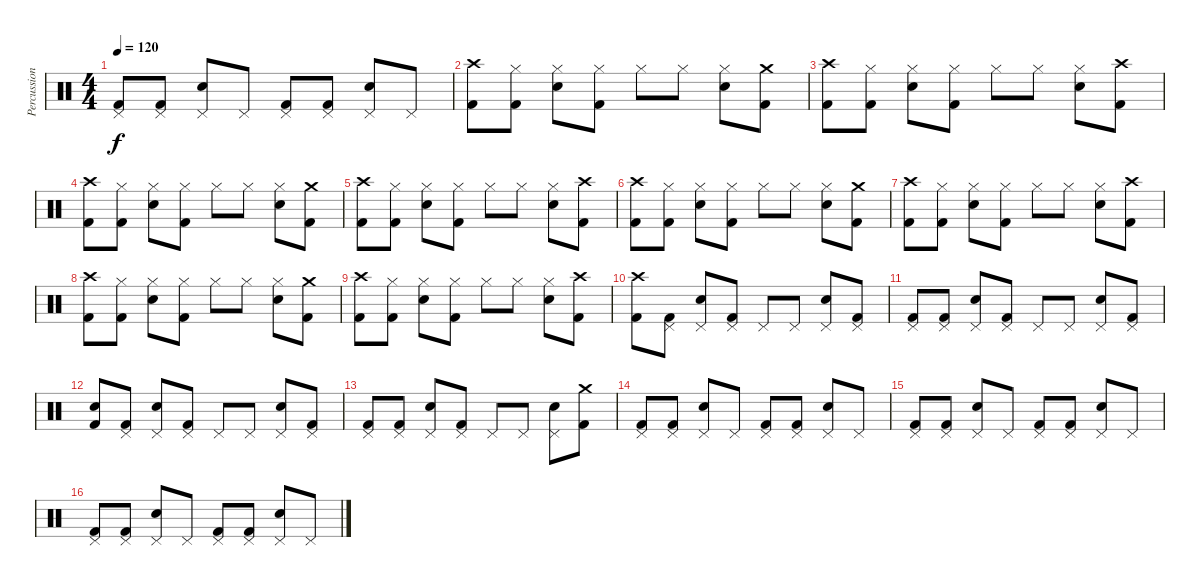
\track ("Percussion" "Percussion") {instrument percussion}
\staff {score}
\articulation defaults
\ts (4 4)
\tempo 120
\clef neutral
\ks c
("Pedal Hi-Hat (hit)" "Kick (hit) 2").8{dy f} ("Pedal Hi-Hat (hit)" "Kick (hit) 2").8 ("Pedal Hi-Hat (hit)" "Snare (hit) 2").8 "Pedal Hi-Hat (hit)".8 ("Pedal Hi-Hat (hit)" "Kick (hit) 2").8 ("Pedal Hi-Hat (hit)" "Kick (hit) 2").8 ("Pedal Hi-Hat (hit)" "Snare (hit) 2").8 "Pedal Hi-Hat (hit)".8 |
("Crash high (hit)" "Kick (hit) 2").8 ("Hi-Hat (closed)" "Kick (hit) 2").8 ("Hi-Hat (closed)" "Snare (hit) 2").8 ("Hi-Hat (closed)" "Kick (hit) 2").8 "Hi-Hat (closed)".8 "Hi-Hat (closed)".8 ("Hi-Hat (closed)" "Snare (hit) 2").8 ("Crash medium (hit)" "Kick (hit) 2").8 |
("Crash high (hit)" "Kick (hit) 2").8 ("Hi-Hat (closed)" "Kick (hit) 2").8 ("Hi-Hat (closed)" "Snare (hit) 2").8 ("Hi-Hat (closed)" "Kick (hit) 2").8 "Hi-Hat (closed)".8 "Hi-Hat (closed)".8 ("Hi-Hat (closed)" "Snare (hit) 2").8 ("Crash high (hit)" "Kick (hit) 2").8 |
("Crash high (hit)" "Kick (hit) 2").8 ("Hi-Hat (closed)" "Kick (hit) 2").8 ("Hi-Hat (closed)" "Snare (hit) 2").8 ("Hi-Hat (closed)" "Kick (hit) 2").8 "Hi-Hat (closed)".8 "Hi-Hat (closed)".8 ("Hi-Hat (closed)" "Snare (hit) 2").8 ("Crash medium (hit)" "Kick (hit) 2").8 |
("Crash high (hit)" "Kick (hit) 2").8 ("Hi-Hat (closed)" "Kick (hit) 2").8 ("Hi-Hat (closed)" "Snare (hit) 2").8 ("Hi-Hat (closed)" "Kick (hit) 2").8 "Hi-Hat (closed)".8 "Hi-Hat (closed)".8 ("Hi-Hat (closed)" "Snare (hit) 2").8 ("Crash high (hit)" "Kick (hit) 2").8 |
("Crash high (hit)" "Kick (hit) 2").8 ("Hi-Hat (closed)" "Kick (hit) 2").8 ("Hi-Hat (closed)" "Snare (hit) 2").8 ("Hi-Hat (closed)" "Kick (hit) 2").8 "Hi-Hat (closed)".8 "Hi-Hat (closed)".8 ("Hi-Hat (closed)" "Snare (hit) 2").8 ("Crash medium (hit)" "Kick (hit) 2").8 |
("Crash high (hit)" "Kick (hit) 2").8 ("Hi-Hat (closed)" "Kick (hit) 2").8 ("Hi-Hat (closed)" "Snare (hit) 2").8 ("Hi-Hat (closed)" "Kick (hit) 2").8 "Hi-Hat (closed)".8 "Hi-Hat (closed)".8 ("Hi-Hat (closed)" "Snare (hit) 2").8 ("Crash high (hit)" "Kick (hit) 2").8 |
("Crash high (hit)" "Kick (hit) 2").8 ("Hi-Hat (closed)" "Kick (hit) 2").8 ("Hi-Hat (closed)" "Snare (hit) 2").8 ("Hi-Hat (closed)" "Kick (hit) 2").8 "Hi-Hat (closed)".8 "Hi-Hat (closed)".8 ("Hi-Hat (closed)" "Snare (hit) 2").8 ("Crash medium (hit)" "Kick (hit) 2").8 |
("Crash high (hit)" "Kick (hit) 2").8 ("Hi-Hat (closed)" "Kick (hit) 2").8 ("Hi-Hat (closed)" "Snare (hit) 2").8 ("Hi-Hat (closed)" "Kick (hit) 2").8 "Hi-Hat (closed)".8 "Hi-Hat (closed)".8 ("Hi-Hat (closed)" "Snare (hit) 2").8 ("Crash high (hit)" "Kick (hit) 2").8 |
("Crash high (hit)" "Kick (hit) 2").8 ("Pedal Hi-Hat (hit)" "Kick (hit) 2").8 ("Pedal Hi-Hat (hit)" "Snare (hit) 2").8 ("Pedal Hi-Hat (hit)" "Kick (hit) 2").8 "Pedal Hi-Hat (hit)".8 "Pedal Hi-Hat (hit)".8 ("Pedal Hi-Hat (hit)" "Snare (hit) 2").8 ("Pedal Hi-Hat (hit)" "Kick (hit) 2").8 |
("Pedal Hi-Hat (hit)" "Kick (hit) 2").8 ("Pedal Hi-Hat (hit)" "Kick (hit) 2").8 ("Pedal Hi-Hat (hit)" "Snare (hit) 2").8 ("Pedal Hi-Hat (hit)" "Kick (hit) 2").8 "Pedal Hi-Hat (hit)".8 "Pedal Hi-Hat (hit)".8 ("Pedal Hi-Hat (hit)" "Snare (hit) 2").8 ("Pedal Hi-Hat (hit)" "Kick (hit) 2").8 |
("Snare (hit)" "Kick (hit) 2").8 ("Pedal Hi-Hat (hit)" "Kick (hit) 2").8 ("Pedal Hi-Hat (hit)" "Snare (hit) 2").8 ("Pedal Hi-Hat (hit)" "Kick (hit) 2").8 "Pedal Hi-Hat (hit)".8 "Pedal Hi-Hat (hit)".8 ("Pedal Hi-Hat (hit)" "Snare (hit) 2").8 ("Pedal Hi-Hat (hit)" "Kick (hit) 2").8 |
("Pedal Hi-Hat (hit)" "Kick (hit) 2").8 ("Pedal Hi-Hat (hit)" "Kick (hit) 2").8 ("Pedal Hi-Hat (hit)" "Snare (hit) 2").8 ("Pedal Hi-Hat (hit)" "Kick (hit) 2").8 "Pedal Hi-Hat (hit)".8 "Pedal Hi-Hat (hit)".8 ("Pedal Hi-Hat (hit)" "Snare (hit) 2").8 ("Crash medium (hit)" "Kick (hit) 2").8 |
("Pedal Hi-Hat (hit)" "Kick (hit) 2").8 ("Pedal Hi-Hat (hit)" "Kick (hit) 2").8 ("Pedal Hi-Hat (hit)" "Snare (hit) 2").8 "Pedal Hi-Hat (hit)".8 ("Pedal Hi-Hat (hit)" "Kick (hit) 2").8 ("Pedal Hi-Hat (hit)" "Kick (hit) 2").8 ("Pedal Hi-Hat (hit)" "Snare (hit) 2").8 "Pedal Hi-Hat (hit)".8 |
("Pedal Hi-Hat (hit)" "Kick (hit) 2").8 ("Pedal Hi-Hat (hit)" "Kick (hit) 2").8 ("Pedal Hi-Hat (hit)" "Snare (hit) 2").8 "Pedal Hi-Hat (hit)".8 ("Pedal Hi-Hat (hit)" "Kick (hit) 2").8 ("Pedal Hi-Hat (hit)" "Kick (hit) 2").8 ("Pedal Hi-Hat (hit)" "Snare (hit) 2").8 "Pedal Hi-Hat (hit)".8 |
("Pedal Hi-Hat (hit)" "Kick (hit) 2").8 ("Pedal Hi-Hat (hit)" "Kick (hit) 2").8 ("Pedal Hi-Hat (hit)" "Snare (hit) 2").8 "Pedal Hi-Hat (hit)".8 ("Pedal Hi-Hat (hit)" "Kick (hit) 2").8 ("Pedal Hi-Hat (hit)" "Kick (hit) 2").8 ("Pedal Hi-Hat (hit)" "Snare (hit) 2").8 "Pedal Hi-Hat (hit)".8
